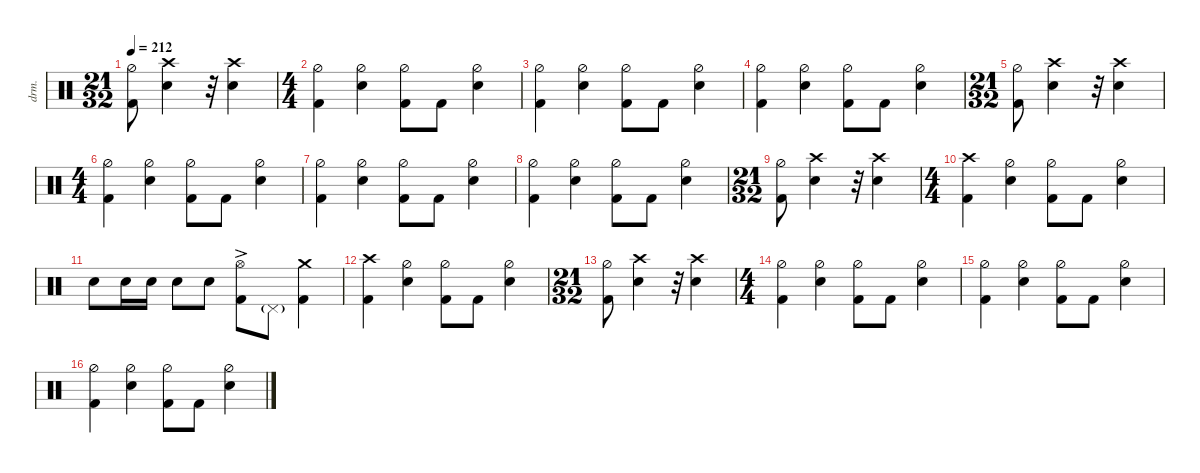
\defaultSystemsLayout 4
\hideDynamics
\bracketExtendMode nobrackets
\track ("Drums" "drm.") {defaultSystemsLayout 4 multiBarRest instrument percussion}
\staff
\articulation defaults
\ts (21 32)
\beaming (8 3 2)
\tempo 212
\clef neutral
\ks c
("Kick (hit) 2" "Hi-Hat (half)").8{dy f} ("Snare (hit) 2" "Crash high (hit)").4 r.32 ("Snare (hit) 2" "Crash high (hit)").4 |
\ts (4 4)
\beaming (8 2 2 2 2)
("Kick (hit) 2" "Hi-Hat (half)").4 ("Hi-Hat (half)" "Snare (hit) 2").4 ("Hi-Hat (half)" "Kick (hit) 2").8 "Kick (hit) 2".8 ("Hi-Hat (half)" "Snare (hit) 2").4 |
("Kick (hit) 2" "Hi-Hat (half)").4 ("Hi-Hat (half)" "Snare (hit) 2").4 ("Hi-Hat (half)" "Kick (hit) 2").8 "Kick (hit) 2".8 ("Hi-Hat (half)" "Snare (hit) 2").4 |
("Hi-Hat (half)" "Kick (hit) 2").4 ("Snare (hit) 2" "Hi-Hat (half)").4 ("Hi-Hat (half)" "Kick (hit) 2").8 "Kick (hit) 2".8 ("Hi-Hat (half)" "Snare (hit) 2").4 |
\ts (21 32)
\beaming (8 3 2)
("Kick (hit) 2" "Hi-Hat (half)").8 ("Snare (hit) 2" "Crash high (hit)").4 r.32 ("Snare (hit) 2" "Crash high (hit)").4 |
\ts (4 4)
\beaming (8 2 2 2 2)
("Kick (hit) 2" "Hi-Hat (half)").4 ("Hi-Hat (half)" "Snare (hit) 2").4 ("Hi-Hat (half)" "Kick (hit) 2").8 "Kick (hit) 2".8 ("Hi-Hat (half)" "Snare (hit) 2").4 |
("Kick (hit) 2" "Hi-Hat (half)").4 ("Hi-Hat (half)" "Snare (hit) 2").4 ("Hi-Hat (half)" "Kick (hit) 2").8 "Kick (hit) 2".8 ("Hi-Hat (half)" "Snare (hit) 2").4 |
("Hi-Hat (half)" "Kick (hit) 2").4 ("Snare (hit) 2" "Hi-Hat (half)").4 ("Hi-Hat (half)" "Kick (hit) 2").8 "Kick (hit) 2".8 ("Hi-Hat (half)" "Snare (hit) 2").4 |
\ts (21 32)
\beaming (8 3 2)
("Kick (hit) 2" "Hi-Hat (half)").8 ("Snare (hit) 2" "Crash high (hit)").4 r.32 ("Snare (hit) 2" "Crash high (hit)").4 |
\ts (4 4)
\beaming (8 2 2 2 2)
("Crash high (hit)" "Kick (hit) 2").4 ("Hi-Hat (half)" "Snare (hit) 2").4 ("Hi-Hat (half)" "Kick (hit) 2").8 "Kick (hit) 2".8 ("Hi-Hat (half)" "Snare (hit) 2").4 |
"Snare (hit) 2".8 "Snare (hit) 2".16 "Snare (hit) 2".16 "Snare (hit) 2".8 "Snare (hit) 2".8 ("Kick (hit) 2" "Hi-Hat (open)"{ac}).8 "Pedal Hi-Hat (hit)"{g}.8 ("Crash medium (hit)" "Kick (hit) 2").4 |
("Crash high (hit)" "Kick (hit) 2").4 ("Hi-Hat (half)" "Snare (hit) 2").4 ("Hi-Hat (half)" "Kick (hit) 2").8 "Kick (hit) 2".8 ("Hi-Hat (half)" "Snare (hit) 2").4 |
\ts (21 32)
\beaming (8 3 2)
("Kick (hit) 2" "Hi-Hat (half)").8 ("Snare (hit) 2" "Crash high (hit)").4 r.32 ("Snare (hit) 2" "Crash high (hit)").4 |
\ts (4 4)
\beaming (8 2 2 2 2)
("Kick (hit) 2" "Hi-Hat (half)").4 ("Hi-Hat (half)" "Snare (hit) 2").4 ("Hi-Hat (half)" "Kick (hit) 2").8 "Kick (hit) 2".8 ("Hi-Hat (half)" "Snare (hit) 2").4 |
("Kick (hit) 2" "Hi-Hat (half)").4 ("Hi-Hat (half)" "Snare (hit) 2").4 ("Hi-Hat (half)" "Kick (hit) 2").8 "Kick (hit) 2".8 ("Hi-Hat (half)" "Snare (hit) 2").4 |
("Kick (hit) 2" "Hi-Hat (half)").4 ("Hi-Hat (half)" "Snare (hit) 2").4 ("Hi-Hat (half)" "Kick (hit) 2").8 "Kick (hit) 2".8 ("Hi-Hat (half)" "Snare (hit) 2").4
